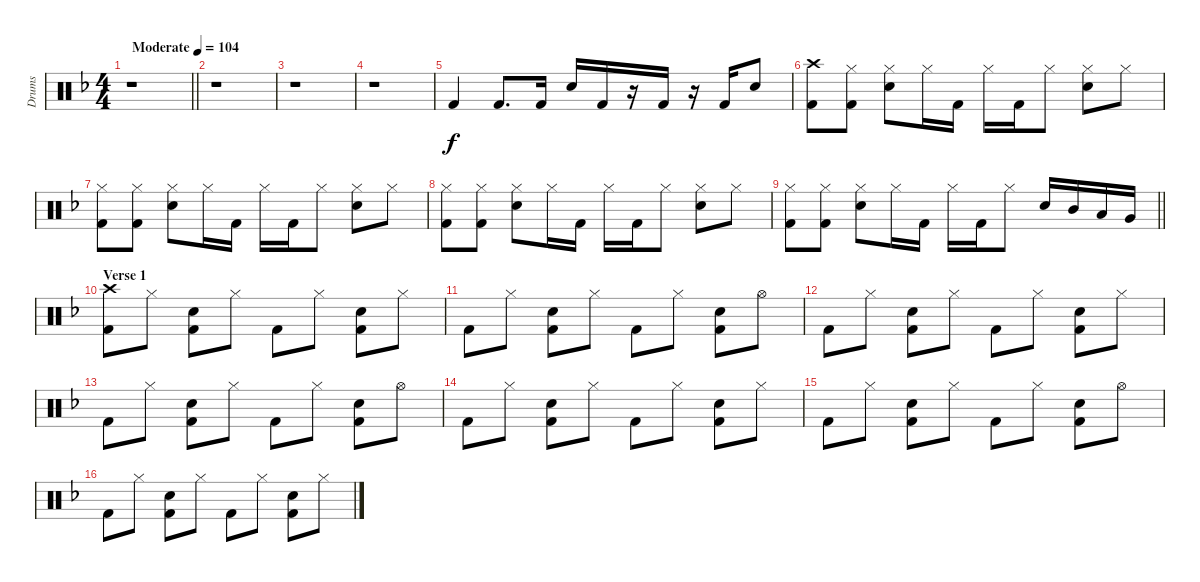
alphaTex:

\track ("Drums" "Drums") {instrument percussion}
\staff {score}
\articulation defaults
\ts (4 4)
\tempo (104 "Moderate")
\clef neutral
\barLineRight lightlight
\ks dminor
r.1{dy f} |
r.1 |
r.1 |
r.1 |
"Kick (hit) 2".4 "Kick (hit) 2".8{d} "Kick (hit) 2".16 "Electric Snare (hit)".16 "Kick (hit) 2".16 r.16 "Kick (hit) 2".16 r.16 "Kick (hit) 2".16 "Electric Snare (hit)".8 |
("Crash high (hit)" "Kick (hit) 2").8 ("Hi-Hat (closed)" "Kick (hit) 2").8 ("Hi-Hat (closed)" "Electric Snare (hit)").8 "Hi-Hat (closed)".16 "Kick (hit) 2".16 "Hi-Hat (closed)".16 "Kick (hit) 2".16 "Hi-Hat (closed)".8 ("Hi-Hat (closed)" "Electric Snare (hit)").8 "Hi-Hat (closed)".8 |
("Hi-Hat (closed)" "Kick (hit) 2").8 ("Hi-Hat (closed)" "Kick (hit) 2").8 ("Hi-Hat (closed)" "Electric Snare (hit)").8 "Hi-Hat (closed)".16 "Kick (hit) 2".16 "Hi-Hat (closed)".16 "Kick (hit) 2".16 "Hi-Hat (closed)".8 ("Hi-Hat (closed)" "Electric Snare (hit)").8 "Hi-Hat (closed)".8 |
("Hi-Hat (closed)" "Kick (hit) 2").8 ("Hi-Hat (closed)" "Kick (hit) 2").8 ("Hi-Hat (closed)" "Electric Snare (hit)").8 "Hi-Hat (closed)".16 "Kick (hit) 2".16 "Hi-Hat (closed)".16 "Kick (hit) 2".16 "Hi-Hat (closed)".8 ("Hi-Hat (closed)" "Electric Snare (hit)").8 "Hi-Hat (closed)".8 |
\barLineRight lightlight
("Hi-Hat (closed)" "Kick (hit) 2").8 ("Hi-Hat (closed)" "Kick (hit) 2").8 ("Hi-Hat (closed)" "Electric Snare (hit)").8 "Hi-Hat (closed)".16 "Kick (hit) 2".16 "Hi-Hat (closed)".16 "Kick (hit) 2".16 "Hi-Hat (closed)".8 "Electric Snare (hit)".16 "Mid Tom (hit)".16 "Low Tom (hit)".16 "Very Low Tom (hit)".16 |
\section ("" "Verse 1")
("Crash high (hit)" "Kick (hit) 2").8 "Hi-Hat (closed)".8 ("Kick (hit) 2" "Hand Clap (hit)").8 "Hi-Hat (closed)".8 "Kick (hit) 2".8 "Hi-Hat (closed)".8 ("Kick (hit) 2" "Hand Clap (hit)").8 "Hi-Hat (closed)".8 |
"Kick (hit) 2".8 "Hi-Hat (closed)".8 ("Kick (hit) 2" "Hand Clap (hit)").8 "Hi-Hat (closed)".8 "Kick (hit) 2".8 "Hi-Hat (closed)".8 ("Kick (hit) 2" "Hand Clap (hit)").8 "Hi-Hat (open)".8 |
"Kick (hit) 2".8 "Hi-Hat (closed)".8 ("Kick (hit) 2" "Hand Clap (hit)").8 "Hi-Hat (closed)".8 "Kick (hit) 2".8 "Hi-Hat (closed)".8 ("Kick (hit) 2" "Hand Clap (hit)").8 "Hi-Hat (closed)".8 |
"Kick (hit) 2".8 "Hi-Hat (closed)".8 ("Kick (hit) 2" "Hand Clap (hit)").8 "Hi-Hat (closed)".8 "Kick (hit) 2".8 "Hi-Hat (closed)".8 ("Kick (hit) 2" "Hand Clap (hit)").8 "Hi-Hat (open)".8 |
"Kick (hit) 2".8 "Hi-Hat (closed)".8 ("Kick (hit) 2" "Hand Clap (hit)").8 "Hi-Hat (closed)".8 "Kick (hit) 2".8 "Hi-Hat (closed)".8 ("Kick (hit) 2" "Hand Clap (hit)").8 "Hi-Hat (closed)".8 |
"Kick (hit) 2".8 "Hi-Hat (closed)".8 ("Kick (hit) 2" "Hand Clap (hit)").8 "Hi-Hat (closed)".8 "Kick (hit) 2".8 "Hi-Hat (closed)".8 ("Kick (hit) 2" "Hand Clap (hit)").8 "Hi-Hat (open)".8 |
"Kick (hit) 2".8 "Hi-Hat (closed)".8 ("Kick (hit) 2" "Hand Clap (hit)").8 "Hi-Hat (closed)".8 "Kick (hit) 2".8 "Hi-Hat (closed)".8 ("Kick (hit) 2" "Hand Clap (hit)").8 "Hi-Hat (closed)".8
